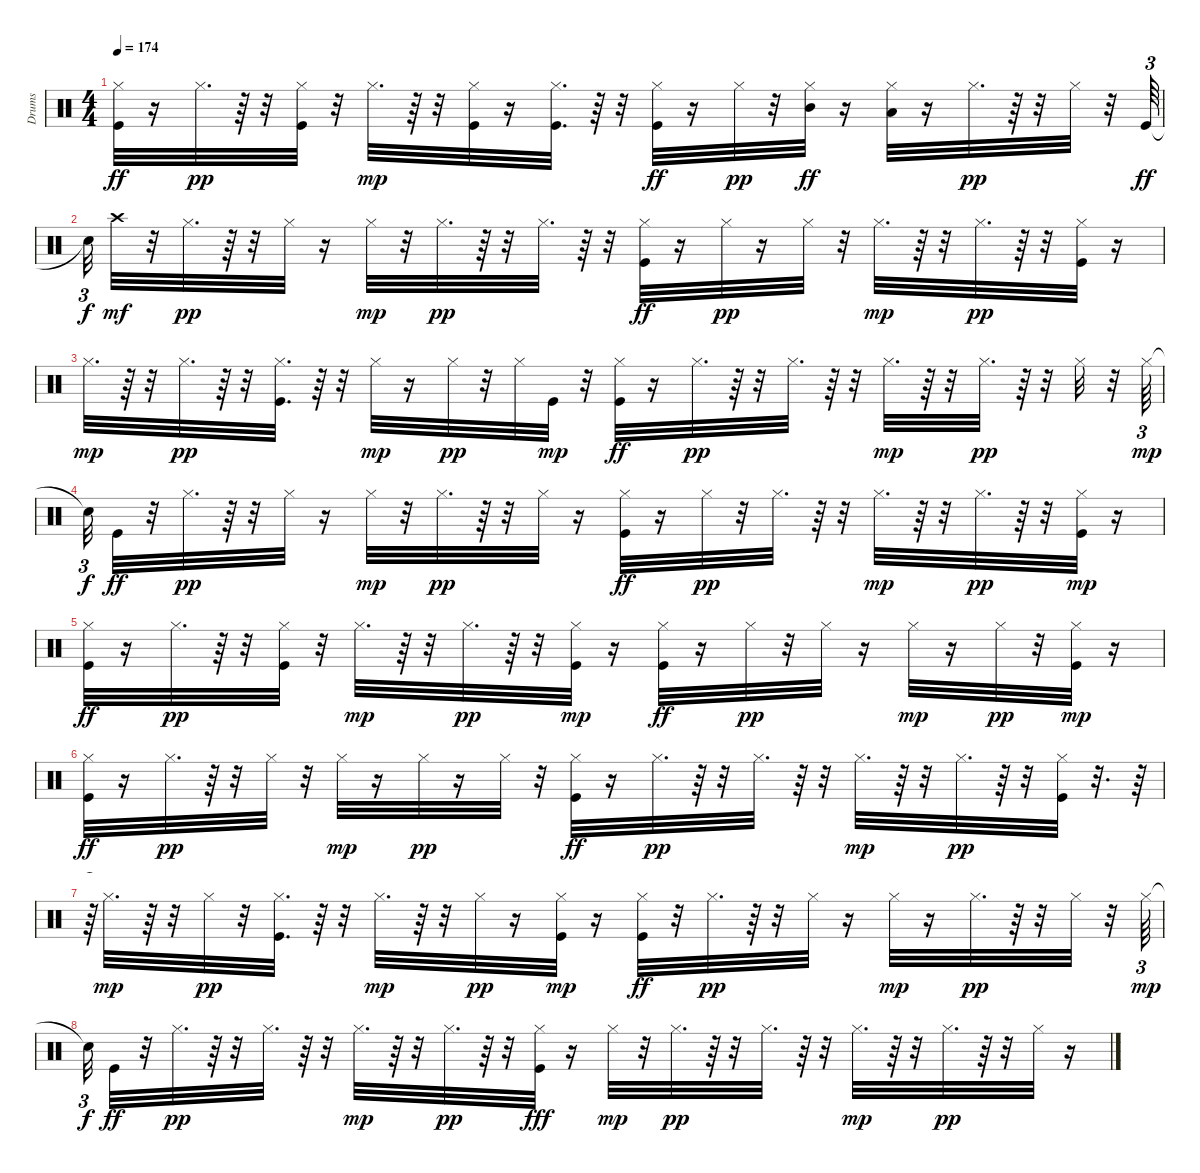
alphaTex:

\track ("Drums" "Drums") {instrument percussion}
\staff {score}
\articulation defaults
\ts (4 4)
\tempo 174
\clef neutral
\ks c
("Hi-Hat (closed)" "Kick (hit)").32{dy ff} r.16 "Hi-Hat (closed)".32{d dy pp} r.64 r.32 ("Hi-Hat (closed)" "Kick (hit)").32 r.32 "Hi-Hat (closed)".32{d dy mp} r.64 r.32 ("Hi-Hat (closed)" "Kick (hit)").32 r.16 ("Hi-Hat (closed)" "Kick (hit)").32{d} r.64 r.32 ("Hi-Hat (closed)" "Kick (hit)").32{dy ff} r.16 "Hi-Hat (closed)".32{dy pp} r.32 ("Hi-Hat (closed)" "Mid Tom (hit)").32{dy ff} r.16 ("Hi-Hat (closed)" "Low Tom (hit)").32 r.16 "Hi-Hat (closed)".32{d dy pp} r.64 r.32 "Hi-Hat (closed)".32 r.32 "Kick (hit)".64{tu (3 2) dy ff} |
"Snare (hit)"{t}.32{tu (3 2) dy f} "Crash high (hit)".32{dy mf} r.32 "Hi-Hat (closed)".32{d dy pp} r.64 r.32 "Hi-Hat (closed)".32 r.16 "Hi-Hat (closed)".32{dy mp} r.32 "Hi-Hat (closed)".32{d dy pp} r.64 r.32 "Hi-Hat (closed)".32{d} r.64 r.32 ("Hi-Hat (closed)" "Kick (hit)").32{dy ff} r.16 "Hi-Hat (closed)".32{dy pp} r.16 "Hi-Hat (closed)".32 r.32 "Hi-Hat (closed)".32{d dy mp} r.64 r.32 "Hi-Hat (closed)".32{d dy pp} r.64 r.32 ("Hi-Hat (closed)" "Kick (hit)").32 r.16 |
"Hi-Hat (closed)".32{d dy mp} r.64 r.32 "Hi-Hat (closed)".32{d dy pp} r.64 r.32 ("Hi-Hat (closed)" "Kick (hit)").32{d} r.64 r.32 "Hi-Hat (closed)".32{dy mp} r.16 "Hi-Hat (closed)".32{dy pp} r.32 "Hi-Hat (closed)".32 "Kick (hit)".32{dy mp} r.32 ("Hi-Hat (closed)" "Kick (hit)").32{dy ff} r.16 "Hi-Hat (closed)".32{d dy pp} r.64 r.32 "Hi-Hat (closed)".32{d} r.64 r.32 "Hi-Hat (closed)".32{d dy mp} r.64 r.32 "Hi-Hat (closed)".32{d dy pp} r.64 r.32 "Hi-Hat (closed)".32 r.32 "Hi-Hat (closed)".64{tu (3 2) dy mp} |
"Snare (hit)"{t}.32{tu (3 2) dy f} "Kick (hit)".32{dy ff} r.32 "Hi-Hat (closed)".32{d dy pp} r.64 r.32 "Hi-Hat (closed)".32 r.16 "Hi-Hat (closed)".32{dy mp} r.32 "Hi-Hat (closed)".32{d dy pp} r.64 r.32 "Hi-Hat (closed)".32 r.16 ("Hi-Hat (closed)" "Kick (hit)").32{dy ff} r.16 "Hi-Hat (closed)".32{dy pp} r.32 "Hi-Hat (closed)".32{d} r.64 r.32 "Hi-Hat (closed)".32{d dy mp} r.64 r.32 "Hi-Hat (closed)".32{d dy pp} r.64 r.32 ("Hi-Hat (closed)" "Kick (hit)").32{dy mp} r.16 |
("Hi-Hat (closed)" "Kick (hit)").32{dy ff} r.16 "Hi-Hat (closed)".32{d dy pp} r.64 r.32 ("Hi-Hat (closed)" "Kick (hit)").32 r.32 "Hi-Hat (closed)".32{d dy mp} r.64 r.32 "Hi-Hat (closed)".32{d dy pp} r.64 r.32 ("Hi-Hat (closed)" "Kick (hit)").32{dy mp} r.16 ("Hi-Hat (closed)" "Kick (hit)").32{dy ff} r.16 "Hi-Hat (closed)".32{dy pp} r.32 "Hi-Hat (closed)".32 r.16 "Hi-Hat (closed)".32{dy mp} r.16 "Hi-Hat (closed)".32{dy pp} r.32 ("Hi-Hat (closed)" "Kick (hit)").32{dy mp} r.16 |
("Hi-Hat (closed)" "Kick (hit)").32{dy ff} r.16 "Hi-Hat (closed)".32{d dy pp} r.64 r.32 "Hi-Hat (closed)".32 r.32 "Hi-Hat (closed)".32{dy mp} r.16 "Hi-Hat (closed)".32{dy pp} r.16 "Hi-Hat (closed)".32 r.32 ("Hi-Hat (closed)" "Kick (hit)").32{dy ff} r.16 "Hi-Hat (closed)".32{d dy pp} r.64 r.32 "Hi-Hat (closed)".32{d} r.64 r.32 "Hi-Hat (closed)".32{d dy mp} r.64 r.32 "Hi-Hat (closed)".32{d dy pp} r.64 r.32 ("Hi-Hat (closed)" "Kick (hit)").32 r.32{d} r.64 |
r.64{tu (3 2)} "Hi-Hat (closed)".32{d dy mp} r.64 r.32 "Hi-Hat (closed)".32{dy pp} r.32 ("Hi-Hat (closed)" "Kick (hit)").32{d} r.64 r.32 "Hi-Hat (closed)".32{d dy mp} r.64 r.32 "Hi-Hat (closed)".32{dy pp} r.16 ("Hi-Hat (closed)" "Kick (hit)").32{dy mp} r.16 ("Hi-Hat (closed)" "Kick (hit)").32{dy ff} r.32 "Hi-Hat (closed)".32{d dy pp} r.64 r.32 "Hi-Hat (closed)".32 r.16 "Hi-Hat (closed)".32{dy mp} r.16 "Hi-Hat (closed)".32{d dy pp} r.64 r.32 "Hi-Hat (closed)".32 r.32 "Hi-Hat (closed)".64{tu (3 2) dy mp} |
"Snare (hit)"{t}.32{tu (3 2) dy f} "Kick (hit)".32{dy ff} r.32 "Hi-Hat (closed)".32{d dy pp} r.64 r.32 "Hi-Hat (closed)".32{d} r.64 r.32 "Hi-Hat (closed)".32{d dy mp} r.64 r.32 "Hi-Hat (closed)".32{d dy pp} r.64 r.32 ("Hi-Hat (closed)" "Kick (hit)").32{dy fff} r.16 "Hi-Hat (closed)".32{dy mp} r.32 "Hi-Hat (closed)".32{d dy pp} r.64 r.32 "Hi-Hat (closed)".32{d} r.64 r.32 "Hi-Hat (closed)".32{d dy mp} r.64 r.32 "Hi-Hat (closed)".32{d dy pp} r.64 r.32 "Hi-Hat (closed)".32 r.16
